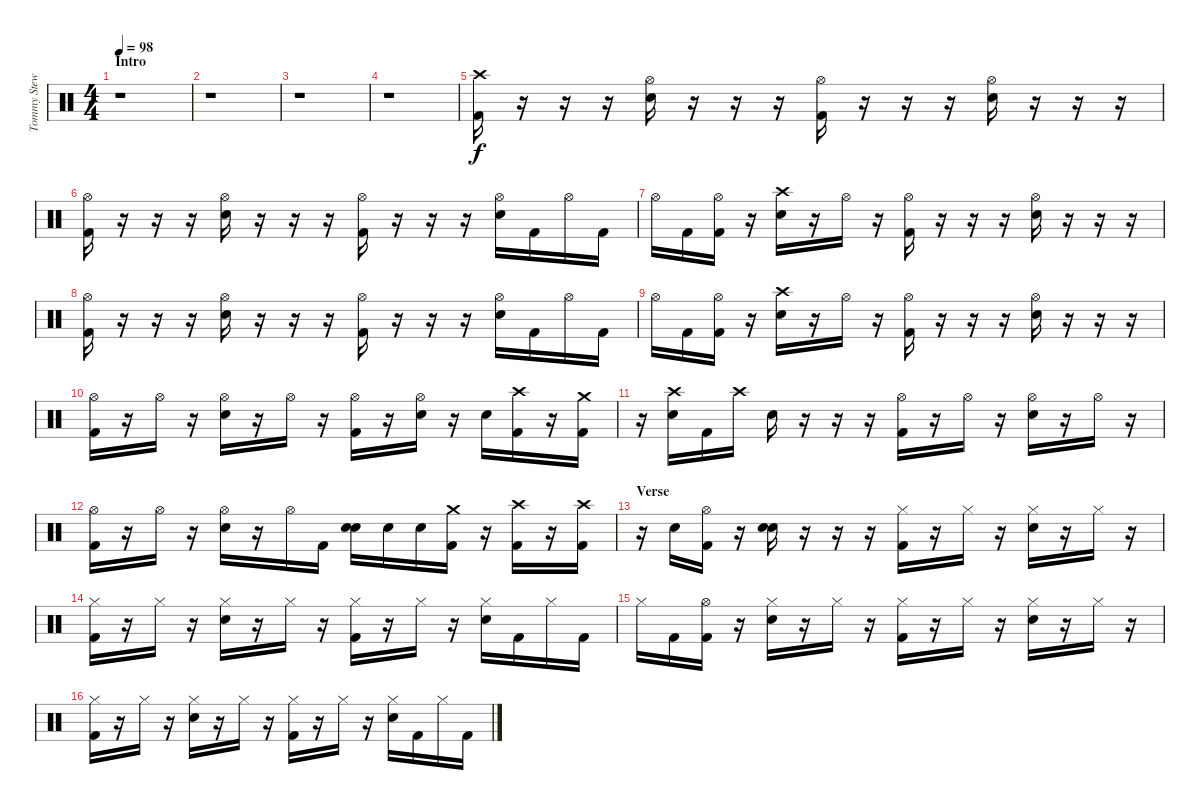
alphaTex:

\track ("Tommy Stewart - Drums" "Tommy Stew") {instrument percussion}
\staff {score}
\articulation defaults
\ts (4 4)
\section ("" "Intro")
\tempo 98
\clef neutral
\ks c
r.1{dy f} |
r.1 |
r.1 |
r.1 |
("Crash high (hit)" "Kick (hit) 2").16 r.16 r.16 r.16 ("Hi-Hat (open)" "Snare (hit) 2").16 r.16 r.16 r.16 ("Hi-Hat (open)" "Kick (hit) 2").16 r.16 r.16 r.16 ("Hi-Hat (open)" "Snare (hit) 2").16 r.16 r.16 r.16 |
("Hi-Hat (open)" "Kick (hit) 2").16 r.16 r.16 r.16 ("Hi-Hat (open)" "Snare (hit) 2").16 r.16 r.16 r.16 ("Hi-Hat (open)" "Kick (hit) 2").16 r.16 r.16 r.16 ("Hi-Hat (open)" "Snare (hit) 2").16 "Kick (hit) 2".16 "Hi-Hat (open)".16 "Kick (hit) 2".16 |
"Hi-Hat (open)".16 "Kick (hit) 2".16 ("Hi-Hat (open)" "Kick (hit) 2").16 r.16 ("Crash high (hit)" "Snare (hit) 2").16 r.16 "Hi-Hat (open)".16 r.16 ("Hi-Hat (open)" "Kick (hit) 2").16 r.16 r.16 r.16 ("Hi-Hat (open)" "Snare (hit) 2").16 r.16 r.16 r.16 |
("Hi-Hat (open)" "Kick (hit) 2").16 r.16 r.16 r.16 ("Hi-Hat (open)" "Snare (hit) 2").16 r.16 r.16 r.16 ("Hi-Hat (open)" "Kick (hit) 2").16 r.16 r.16 r.16 ("Hi-Hat (open)" "Snare (hit) 2").16 "Kick (hit) 2".16 "Hi-Hat (open)".16 "Kick (hit) 2".16 |
"Hi-Hat (open)".16 "Kick (hit) 2".16 ("Hi-Hat (open)" "Kick (hit) 2").16 r.16 ("Crash high (hit)" "Snare (hit) 2").16 r.16 "Hi-Hat (open)".16 r.16 ("Hi-Hat (open)" "Kick (hit) 2").16 r.16 r.16 r.16 ("Hi-Hat (open)" "Snare (hit) 2").16 r.16 r.16 r.16 |
("Hi-Hat (open)" "Kick (hit) 2").16 r.16 "Hi-Hat (open)".16 r.16 ("Hi-Hat (open)" "Snare (hit) 2").16 r.16 "Hi-Hat (open)".16 r.16 ("Hi-Hat (open)" "Kick (hit) 2").16 r.16 ("Hi-Hat (open)" "Snare (hit) 2").16 r.16 "Snare (hit) 2".16 ("Crash high (hit)" "Kick (hit) 2").16 r.16 ("Crash medium (hit)" "Kick (hit) 2").16 |
r.16 ("Crash high (hit)" "Snare (hit) 2").16 "Kick (hit) 2".16 "Crash high (hit)".16 "Snare (hit) 2".16 r.16 r.16 r.16 ("Hi-Hat (open)" "Kick (hit) 2").16 r.16 "Hi-Hat (open)".16 r.16 ("Hi-Hat (open)" "Snare (hit) 2").16 r.16 "Hi-Hat (open)".16 r.16 |
("Hi-Hat (open)" "Kick (hit) 2").16 r.16 "Hi-Hat (open)".16 r.16 ("Hi-Hat (open)" "Snare (hit) 2").16 r.16 "Hi-Hat (open)".16 "Kick (hit) 2".16 ("Snare (hit) 2" "Snare (hit) 2").16 "Snare (hit) 2".16 "Snare (hit) 2".16 ("Crash medium (hit)" "Kick (hit) 2").16 r.16 ("Crash high (hit)" "Kick (hit) 2").16 r.16 ("Crash high (hit)" "Kick (hit) 2").16 |
\section ("" "Verse")
r.16 "Snare (hit) 2".16 ("Hi-Hat (open)" "Kick (hit) 2").16 r.16 ("Snare (hit) 2" "Snare (hit) 2").16 r.16 r.16 r.16 ("Hi-Hat (closed)" "Kick (hit) 2").16 r.16 "Hi-Hat (closed)".16 r.16 ("Hi-Hat (closed)" "Snare (hit) 2").16 r.16 "Hi-Hat (closed)".16 r.16 |
("Hi-Hat (closed)" "Kick (hit) 2").16 r.16 "Hi-Hat (closed)".16 r.16 ("Hi-Hat (closed)" "Snare (hit) 2").16 r.16 "Hi-Hat (closed)".16 r.16 ("Hi-Hat (closed)" "Kick (hit) 2").16 r.16 "Hi-Hat (closed)".16 r.16 ("Hi-Hat (closed)" "Snare (hit) 2").16 "Kick (hit) 2".16 "Hi-Hat (closed)".16 "Kick (hit) 2".16 |
"Hi-Hat (closed)".16 "Kick (hit) 2".16 ("Hi-Hat (open)" "Kick (hit) 2").16 r.16 ("Hi-Hat (closed)" "Snare (hit) 2").16 r.16 "Hi-Hat (closed)".16 r.16 ("Hi-Hat (closed)" "Kick (hit) 2").16 r.16 "Hi-Hat (closed)".16 r.16 ("Hi-Hat (closed)" "Snare (hit) 2").16 r.16 "Hi-Hat (closed)".16 r.16 |
("Hi-Hat (closed)" "Kick (hit) 2").16 r.16 "Hi-Hat (closed)".16 r.16 ("Hi-Hat (closed)" "Snare (hit) 2").16 r.16 "Hi-Hat (closed)".16 r.16 ("Hi-Hat (closed)" "Kick (hit) 2").16 r.16 "Hi-Hat (closed)".16 r.16 ("Hi-Hat (closed)" "Snare (hit) 2").16 "Kick (hit) 2".16 "Hi-Hat (closed)".16 "Kick (hit) 2".16
